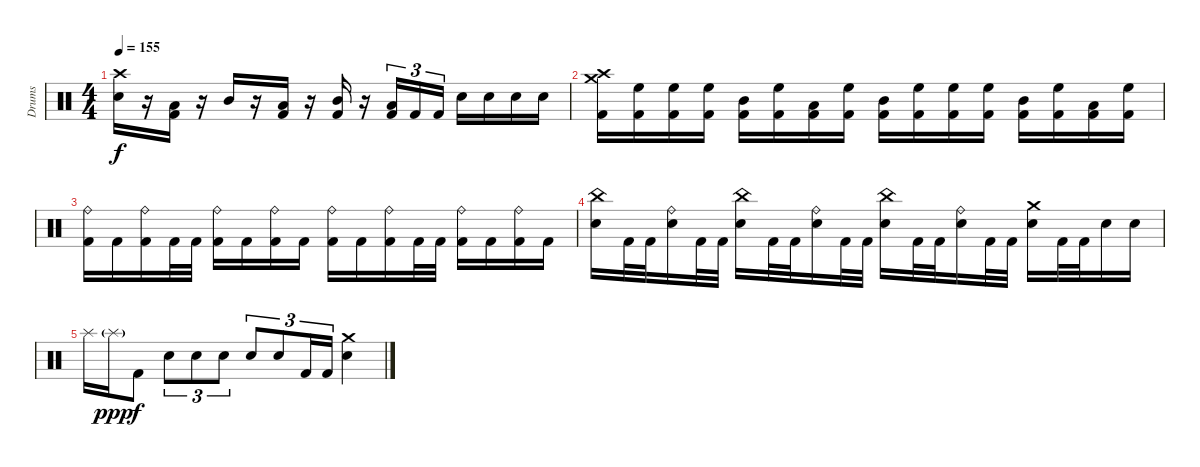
\track ("Drums" "Drums") {instrument percussion}
\staff {score}
\articulation defaults
\ts (4 4)
\tempo 155
\clef neutral
\ks c
("Crash high (hit)" "Electric Snare (hit)").16{dy f} r.16 ("Low Tom (hit)" "Kick (hit) 2").16 r.16 "Mid Tom (hit)".16 r.16 ("Low Tom (hit)" "Kick (hit) 2").16 r.16 ("Mid Tom (hit)" "Kick (hit) 2").16 r.16 ("Low Tom (hit)" "Kick (hit) 2").16{tu (3 2)} "Kick (hit) 2".16{tu (3 2)} "Kick (hit) 2".16{tu (3 2)} "Electric Snare (hit)".16 "Electric Snare (hit)".16 "Electric Snare (hit)".16 "Electric Snare (hit)".16 |
("Crash high (hit)" "Crash medium (hit)" "Kick (hit) 2").16 ("High Floor Tom (hit)" "Kick (hit) 2").16 ("High Floor Tom (hit)" "Kick (hit) 2").16 ("High Floor Tom (hit)" "Kick (hit) 2").16 ("Mid Tom (hit)" "Kick (hit) 2").16 ("High Floor Tom (hit)" "Kick (hit) 2").16 ("Low Tom (hit)" "Kick (hit) 2").16 ("High Floor Tom (hit)" "Kick (hit) 2").16 ("Mid Tom (hit)" "Kick (hit) 2").16 ("High Floor Tom (hit)" "Kick (hit) 2").16 ("High Floor Tom (hit)" "Kick (hit) 2").16 ("High Floor Tom (hit)" "Kick (hit) 2").16 ("Mid Tom (hit)" "Kick (hit) 2").16 ("High Floor Tom (hit)" "Kick (hit) 2").16 ("Low Tom (hit)" "Kick (hit) 2").16 ("High Floor Tom (hit)" "Kick (hit) 2").16 |
("Ride (bell)" "Kick (hit) 2").16 "Kick (hit) 2".16 ("Ride (bell)" "Kick (hit) 2").16 "Kick (hit) 2".32 "Kick (hit) 2".32 ("Ride (bell)" "Kick (hit) 2").16 "Kick (hit) 2".16 ("Ride (bell)" "Kick (hit) 2").16 "Kick (hit) 2".16 ("Ride (bell)" "Kick (hit) 2").16 "Kick (hit) 2".16 ("Ride (bell)" "Kick (hit) 2").16 "Kick (hit) 2".32 "Kick (hit) 2".32 ("Ride (bell)" "Kick (hit) 2").16 "Kick (hit) 2".16 ("Ride (bell)" "Kick (hit) 2").16 "Kick (hit) 2".16 |
("China (hit)" "Electric Snare (hit)").16 "Kick (hit) 2".32 "Kick (hit) 2".32 ("Ride (bell)" "Electric Snare (hit)").16 "Kick (hit) 2".32 "Kick (hit) 2".32 ("China (hit)" "Electric Snare (hit)").16 "Kick (hit) 2".32 "Kick (hit) 2".32 ("Ride (bell)" "Electric Snare (hit)").16 "Kick (hit) 2".32 "Kick (hit) 2".32 ("China (hit)" "Electric Snare (hit)").16 "Kick (hit) 2".32 "Kick (hit) 2".32 ("Ride (bell)" "Electric Snare (hit)").16 "Kick (hit) 2".32 "Kick (hit) 2".32 ("Crash medium (hit)" "Electric Snare (hit)").16 "Kick (hit) 2".32 "Kick (hit) 2".32 "Electric Snare (hit)".16 "Electric Snare (hit)".16 |
"Splash (hit)".16 "Splash (hit)"{g}.16{dy ppp} "Kick (hit) 2".8{dy f} "Electric Snare (hit)".8{tu (3 2)} "Electric Snare (hit)".8{tu (3 2)} "Electric Snare (hit)".8{tu (3 2)} "Electric Snare (hit)".8{tu (3 2)} "Electric Snare (hit)".8{tu (3 2)} "Kick (hit) 2".16{tu (3 2)} "Kick (hit) 2".16{tu (3 2)} ("Crash medium (hit)" "Electric Snare (hit)").4
